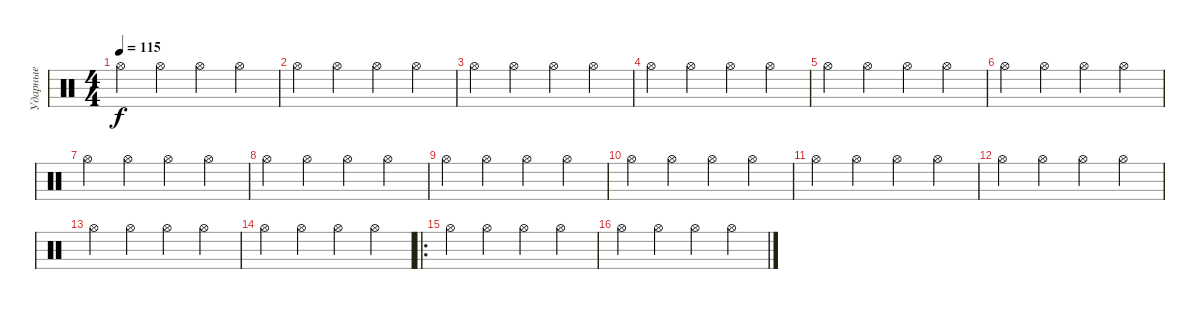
\track ("Ударные" "Ударные") {instrument percussion}
\staff {score}
\articulation defaults
\ts (4 4)
\tempo 115
\clef neutral
\ks c "Hi-Hat (open)".4{dy f} "Hi-Hat (open)".4 "Hi-Hat (open)".4 "Hi-Hat (open)".4
|
"Hi-Hat (open)".4 "Hi-Hat (open)".4 "Hi-Hat (open)".4 "Hi-Hat (open)".4 |
"Hi-Hat (open)".4 "Hi-Hat (open)".4 "Hi-Hat (open)".4 "Hi-Hat (open)".4 |
"Hi-Hat (open)".4 "Hi-Hat (open)".4 "Hi-Hat (open)".4 "Hi-Hat (open)".4 |
"Hi-Hat (open)".4 "Hi-Hat (open)".4 "Hi-Hat (open)".4 "Hi-Hat (open)".4 |
"Hi-Hat (open)".4 "Hi-Hat (open)".4 "Hi-Hat (open)".4 "Hi-Hat (open)".4 |
"Hi-Hat (open)".4 "Hi-Hat (open)".4 "Hi-Hat (open)".4 "Hi-Hat (open)".4 |
"Hi-Hat (open)".4 "Hi-Hat (open)".4 "Hi-Hat (open)".4 "Hi-Hat (open)".4 |
"Hi-Hat (open)".4 "Hi-Hat (open)".4 "Hi-Hat (open)".4 "Hi-Hat (open)".4 |
"Hi-Hat (open)".4 "Hi-Hat (open)".4 "Hi-Hat (open)".4 "Hi-Hat (open)".4 |
"Hi-Hat (open)".4 "Hi-Hat (open)".4 "Hi-Hat (open)".4 "Hi-Hat (open)".4 |
"Hi-Hat (open)".4 "Hi-Hat (open)".4 "Hi-Hat (open)".4 "Hi-Hat (open)".4 |
"Hi-Hat (open)".4 "Hi-Hat (open)".4 "Hi-Hat (open)".4 "Hi-Hat (open)".4 |
"Hi-Hat (open)".4 "Hi-Hat (open)".4 "Hi-Hat (open)".4 "Hi-Hat (open)".4 |
\ro "Hi-Hat (open)".4 "Hi-Hat (open)".4 "Hi-Hat (open)".4 "Hi-Hat (open)".4
|
"Hi-Hat (open)".4 "Hi-Hat (open)".4 "Hi-Hat (open)".4 "Hi-Hat (open)".4
